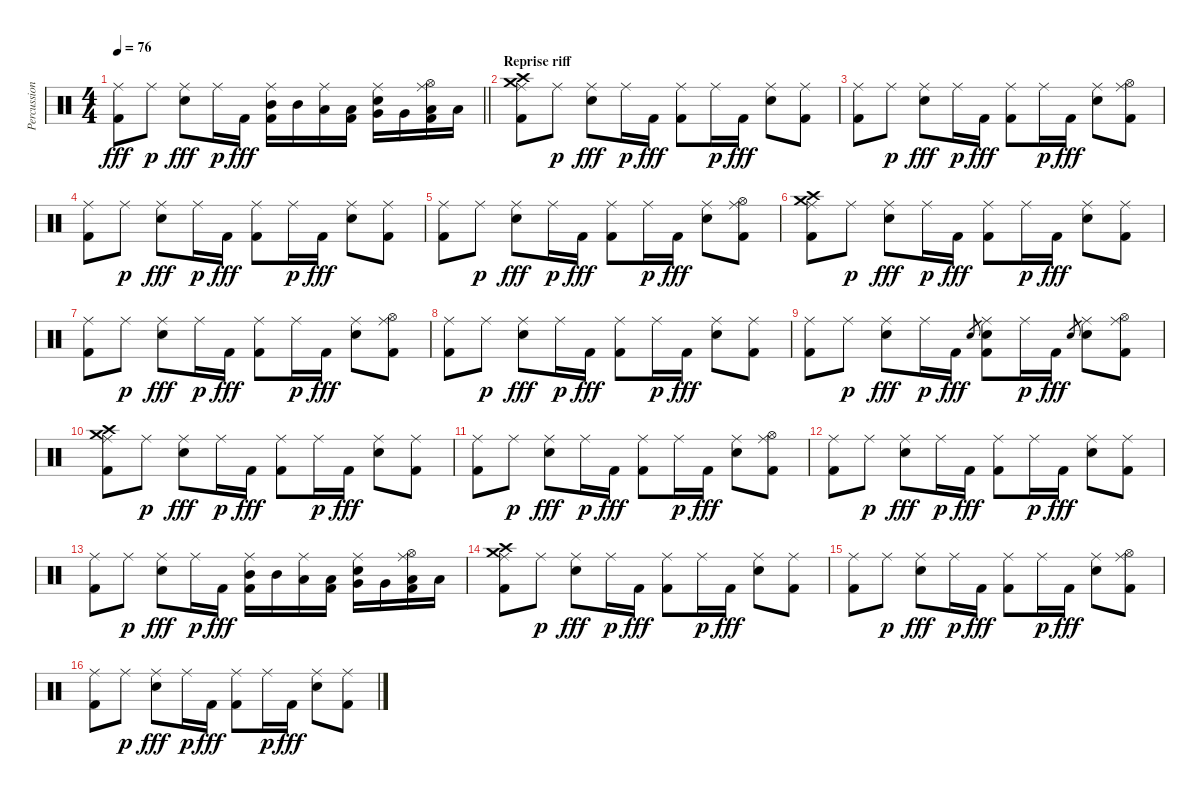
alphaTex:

\track ("Percussions" "Percussion") {instrument percussion}
\staff {score}
\articulation defaults
\ts (4 4)
\tempo 76
\clef neutral
\barLineRight lightlight
\ks c
("Ride (middle)" "Kick (hit) 2").8{dy fff} "Ride (middle)".8{dy p} ("Ride (middle)" "Electric Snare (hit)").8{dy fff} "Ride (middle)".16{dy p} "Kick (hit) 2".16{dy fff} ("Ride (middle)" "Mid Tom (hit)" "Kick (hit) 2").16{volume 7} "Mid Tom (hit)".16 ("Ride (middle)" "Low Tom (hit)").16 ("Low Tom (hit)" "Kick (hit) 2").16 ("Ride (middle)" "Electric Snare (hit)" "Very Low Tom (hit)").16 "Very Low Tom (hit)".16 ("Ride (middle)" "Hi-Hat (open)" "Low Floor Tom (hit)" "Kick (hit) 2").16 "Low Floor Tom (hit)".16 |
\section ("" "Reprise riff")
("Ride (middle)" "Crash medium (hit)" "Crash high (hit)" "Kick (hit) 2").8 "Ride (middle)".8{dy p} ("Ride (middle)" "Electric Snare (hit)").8{dy fff} "Ride (middle)".16{dy p} "Kick (hit) 2".16{dy fff} ("Ride (middle)" "Kick (hit) 2").8 "Ride (middle)".16{dy p} "Kick (hit) 2".16{dy fff} ("Ride (middle)" "Electric Snare (hit)").8 ("Ride (middle)" "Kick (hit) 2").8 |
("Ride (middle)" "Kick (hit) 2").8 "Ride (middle)".8{dy p} ("Ride (middle)" "Electric Snare (hit)").8{dy fff} "Ride (middle)".16{dy p} "Kick (hit) 2".16{dy fff} ("Ride (middle)" "Kick (hit) 2").8 "Ride (middle)".16{dy p} "Kick (hit) 2".16{dy fff} ("Ride (middle)" "Electric Snare (hit)").8 ("Ride (middle)" "Hi-Hat (open)" "Kick (hit) 2").8 |
("Ride (middle)" "Kick (hit) 2").8 "Ride (middle)".8{dy p} ("Ride (middle)" "Electric Snare (hit)").8{dy fff} "Ride (middle)".16{dy p} "Kick (hit) 2".16{dy fff} ("Ride (middle)" "Kick (hit) 2").8 "Ride (middle)".16{dy p} "Kick (hit) 2".16{dy fff} ("Ride (middle)" "Electric Snare (hit)").8 ("Ride (middle)" "Kick (hit) 2").8 |
("Ride (middle)" "Kick (hit) 2").8 "Ride (middle)".8{dy p} ("Ride (middle)" "Electric Snare (hit)").8{dy fff} "Ride (middle)".16{dy p} "Kick (hit) 2".16{dy fff} ("Ride (middle)" "Kick (hit) 2").8 "Ride (middle)".16{dy p} "Kick (hit) 2".16{dy fff} ("Ride (middle)" "Electric Snare (hit)").8 ("Ride (middle)" "Hi-Hat (open)" "Kick (hit) 2").8 |
("Ride (middle)" "Crash medium (hit)" "Crash high (hit)" "Kick (hit) 2").8 "Ride (middle)".8{dy p} ("Ride (middle)" "Electric Snare (hit)").8{dy fff} "Ride (middle)".16{dy p} "Kick (hit) 2".16{dy fff} ("Ride (middle)" "Kick (hit) 2").8 "Ride (middle)".16{dy p} "Kick (hit) 2".16{dy fff} ("Ride (middle)" "Electric Snare (hit)").8 ("Ride (middle)" "Kick (hit) 2").8 |
("Ride (middle)" "Kick (hit) 2").8 "Ride (middle)".8{dy p} ("Ride (middle)" "Electric Snare (hit)").8{dy fff} "Ride (middle)".16{dy p} "Kick (hit) 2".16{dy fff} ("Ride (middle)" "Kick (hit) 2").8 "Ride (middle)".16{dy p} "Kick (hit) 2".16{dy fff} ("Ride (middle)" "Electric Snare (hit)").8 ("Ride (middle)" "Hi-Hat (open)" "Kick (hit) 2").8 |
("Ride (middle)" "Kick (hit) 2").8 "Ride (middle)".8{dy p} ("Ride (middle)" "Electric Snare (hit)").8{dy fff} "Ride (middle)".16{dy p} "Kick (hit) 2".16{dy fff} ("Ride (middle)" "Kick (hit) 2").8 "Ride (middle)".16{dy p} "Kick (hit) 2".16{dy fff} ("Ride (middle)" "Electric Snare (hit)").8 ("Ride (middle)" "Kick (hit) 2").8 |
("Ride (middle)" "Kick (hit) 2").8 "Ride (middle)".8{dy p} ("Ride (middle)" "Electric Snare (hit)").8{dy fff} "Ride (middle)".16{dy p} "Kick (hit) 2".16{dy fff} "Electric Snare (hit)".8{gr} ("Ride (middle)" "Electric Snare (hit)" "Kick (hit) 2").8 "Ride (middle)".16{dy p} "Kick (hit) 2".16{dy fff} "Electric Snare (hit)".8{gr} ("Ride (middle)" "Electric Snare (hit)").8 ("Ride (middle)" "Hi-Hat (open)" "Kick (hit) 2").8 |
("Ride (middle)" "Crash medium (hit)" "Crash high (hit)" "Kick (hit) 2").8 "Ride (middle)".8{dy p} ("Ride (middle)" "Electric Snare (hit)").8{dy fff} "Ride (middle)".16{dy p} "Kick (hit) 2".16{dy fff} ("Ride (middle)" "Kick (hit) 2").8 "Ride (middle)".16{dy p} "Kick (hit) 2".16{dy fff} ("Ride (middle)" "Electric Snare (hit)").8 ("Ride (middle)" "Kick (hit) 2").8 |
("Ride (middle)" "Kick (hit) 2").8 "Ride (middle)".8{dy p} ("Ride (middle)" "Electric Snare (hit)").8{dy fff} "Ride (middle)".16{dy p} "Kick (hit) 2".16{dy fff} ("Ride (middle)" "Kick (hit) 2").8 "Ride (middle)".16{dy p} "Kick (hit) 2".16{dy fff} ("Ride (middle)" "Electric Snare (hit)").8 ("Ride (middle)" "Hi-Hat (open)" "Kick (hit) 2").8 |
("Ride (middle)" "Kick (hit) 2").8 "Ride (middle)".8{dy p} ("Ride (middle)" "Electric Snare (hit)").8{dy fff} "Ride (middle)".16{dy p} "Kick (hit) 2".16{dy fff} ("Ride (middle)" "Kick (hit) 2").8 "Ride (middle)".16{dy p} "Kick (hit) 2".16{dy fff} ("Ride (middle)" "Electric Snare (hit)").8 ("Ride (middle)" "Kick (hit) 2").8 |
("Ride (middle)" "Kick (hit) 2").8 "Ride (middle)".8{dy p} ("Ride (middle)" "Electric Snare (hit)").8{dy fff} "Ride (middle)".16{dy p} "Kick (hit) 2".16{dy fff} ("Ride (middle)" "Mid Tom (hit)" "Kick (hit) 2").16 "Mid Tom (hit)".16 ("Ride (middle)" "Low Tom (hit)").16 ("Low Tom (hit)" "Kick (hit) 2").16 ("Ride (middle)" "Electric Snare (hit)" "Very Low Tom (hit)").16 "Very Low Tom (hit)".16 ("Ride (middle)" "Hi-Hat (open)" "Low Floor Tom (hit)" "Kick (hit) 2").16 "Low Floor Tom (hit)".16 |
("Ride (middle)" "Crash medium (hit)" "Crash high (hit)" "Kick (hit) 2").8 "Ride (middle)".8{dy p} ("Ride (middle)" "Electric Snare (hit)").8{dy fff} "Ride (middle)".16{dy p} "Kick (hit) 2".16{dy fff} ("Ride (middle)" "Kick (hit) 2").8 "Ride (middle)".16{dy p} "Kick (hit) 2".16{dy fff} ("Ride (middle)" "Electric Snare (hit)").8 ("Ride (middle)" "Kick (hit) 2").8 |
("Ride (middle)" "Kick (hit) 2").8 "Ride (middle)".8{dy p} ("Ride (middle)" "Electric Snare (hit)").8{dy fff} "Ride (middle)".16{dy p} "Kick (hit) 2".16{dy fff} ("Ride (middle)" "Kick (hit) 2").8 "Ride (middle)".16{dy p} "Kick (hit) 2".16{dy fff} ("Ride (middle)" "Electric Snare (hit)").8 ("Ride (middle)" "Hi-Hat (open)" "Kick (hit) 2").8 |
("Ride (middle)" "Kick (hit) 2").8 "Ride (middle)".8{dy p} ("Ride (middle)" "Electric Snare (hit)").8{dy fff} "Ride (middle)".16{dy p} "Kick (hit) 2".16{dy fff} ("Ride (middle)" "Kick (hit) 2").8 "Ride (middle)".16{dy p} "Kick (hit) 2".16{dy fff} ("Ride (middle)" "Electric Snare (hit)").8 ("Ride (middle)" "Kick (hit) 2").8
